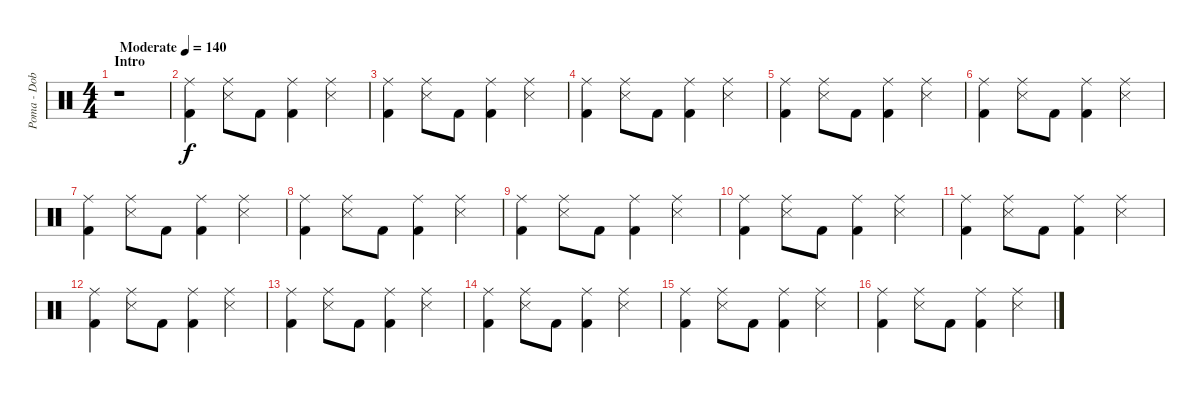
\track ("Poma - Dob" "Poma - Dob") {instrument percussion}
\staff {score}
\articulation defaults
\ts (4 4)
\section ("" "Intro")
\tempo (140 "Moderate")
\clef neutral
\ks c
r.1{dy f} |
("Ride (middle)" "Kick (hit) 2").4 ("Ride (middle)" "Snare (side stick) 3").8 "Kick (hit) 2".8 ("Ride (middle)" "Kick (hit) 2").4 ("Ride (middle)" "Snare (side stick) 3").4 |
("Ride (middle)" "Kick (hit) 2").4 ("Ride (middle)" "Snare (side stick) 3").8 "Kick (hit) 2".8 ("Ride (middle)" "Kick (hit) 2").4 ("Ride (middle)" "Snare (side stick) 3").4 |
("Ride (middle)" "Kick (hit) 2").4 ("Ride (middle)" "Snare (side stick) 3").8 "Kick (hit) 2".8 ("Ride (middle)" "Kick (hit) 2").4 ("Ride (middle)" "Snare (side stick) 3").4 |
("Ride (middle)" "Kick (hit) 2").4 ("Ride (middle)" "Snare (side stick) 3").8 "Kick (hit) 2".8 ("Ride (middle)" "Kick (hit) 2").4 ("Ride (middle)" "Snare (side stick) 3").4 |
("Ride (middle)" "Kick (hit) 2").4 ("Ride (middle)" "Snare (side stick) 3").8 "Kick (hit) 2".8 ("Ride (middle)" "Kick (hit) 2").4 ("Ride (middle)" "Snare (side stick) 3").4 |
("Ride (middle)" "Kick (hit) 2").4 ("Ride (middle)" "Snare (side stick) 3").8 "Kick (hit) 2".8 ("Ride (middle)" "Kick (hit) 2").4 ("Ride (middle)" "Snare (side stick) 3").4 |
("Ride (middle)" "Kick (hit) 2").4 ("Ride (middle)" "Snare (side stick) 3").8 "Kick (hit) 2".8 ("Ride (middle)" "Kick (hit) 2").4 ("Ride (middle)" "Snare (side stick) 3").4 |
("Ride (middle)" "Kick (hit) 2").4 ("Ride (middle)" "Snare (side stick) 3").8 "Kick (hit) 2".8 ("Ride (middle)" "Kick (hit) 2").4 ("Ride (middle)" "Snare (side stick) 3").4 |
("Ride (middle)" "Kick (hit) 2").4 ("Ride (middle)" "Snare (side stick) 3").8 "Kick (hit) 2".8 ("Ride (middle)" "Kick (hit) 2").4 ("Ride (middle)" "Snare (side stick) 3").4 |
("Ride (middle)" "Kick (hit) 2").4 ("Ride (middle)" "Snare (side stick) 3").8 "Kick (hit) 2".8 ("Ride (middle)" "Kick (hit) 2").4 ("Ride (middle)" "Snare (side stick) 3").4 |
("Ride (middle)" "Kick (hit) 2").4 ("Ride (middle)" "Snare (side stick) 3").8 "Kick (hit) 2".8 ("Ride (middle)" "Kick (hit) 2").4 ("Ride (middle)" "Snare (side stick) 3").4 |
("Ride (middle)" "Kick (hit) 2").4 ("Ride (middle)" "Snare (side stick) 3").8 "Kick (hit) 2".8 ("Ride (middle)" "Kick (hit) 2").4 ("Ride (middle)" "Snare (side stick) 3").4 |
("Ride (middle)" "Kick (hit) 2").4 ("Ride (middle)" "Snare (side stick) 3").8 "Kick (hit) 2".8 ("Ride (middle)" "Kick (hit) 2").4 ("Ride (middle)" "Snare (side stick) 3").4 |
("Ride (middle)" "Kick (hit) 2").4 ("Ride (middle)" "Snare (side stick) 3").8 "Kick (hit) 2".8 ("Ride (middle)" "Kick (hit) 2").4 ("Ride (middle)" "Snare (side stick) 3").4 |
("Ride (middle)" "Kick (hit) 2").4 ("Ride (middle)" "Snare (side stick) 3").8 "Kick (hit) 2".8 ("Ride (middle)" "Kick (hit) 2").4 ("Ride (middle)" "Snare (side stick) 3").4
